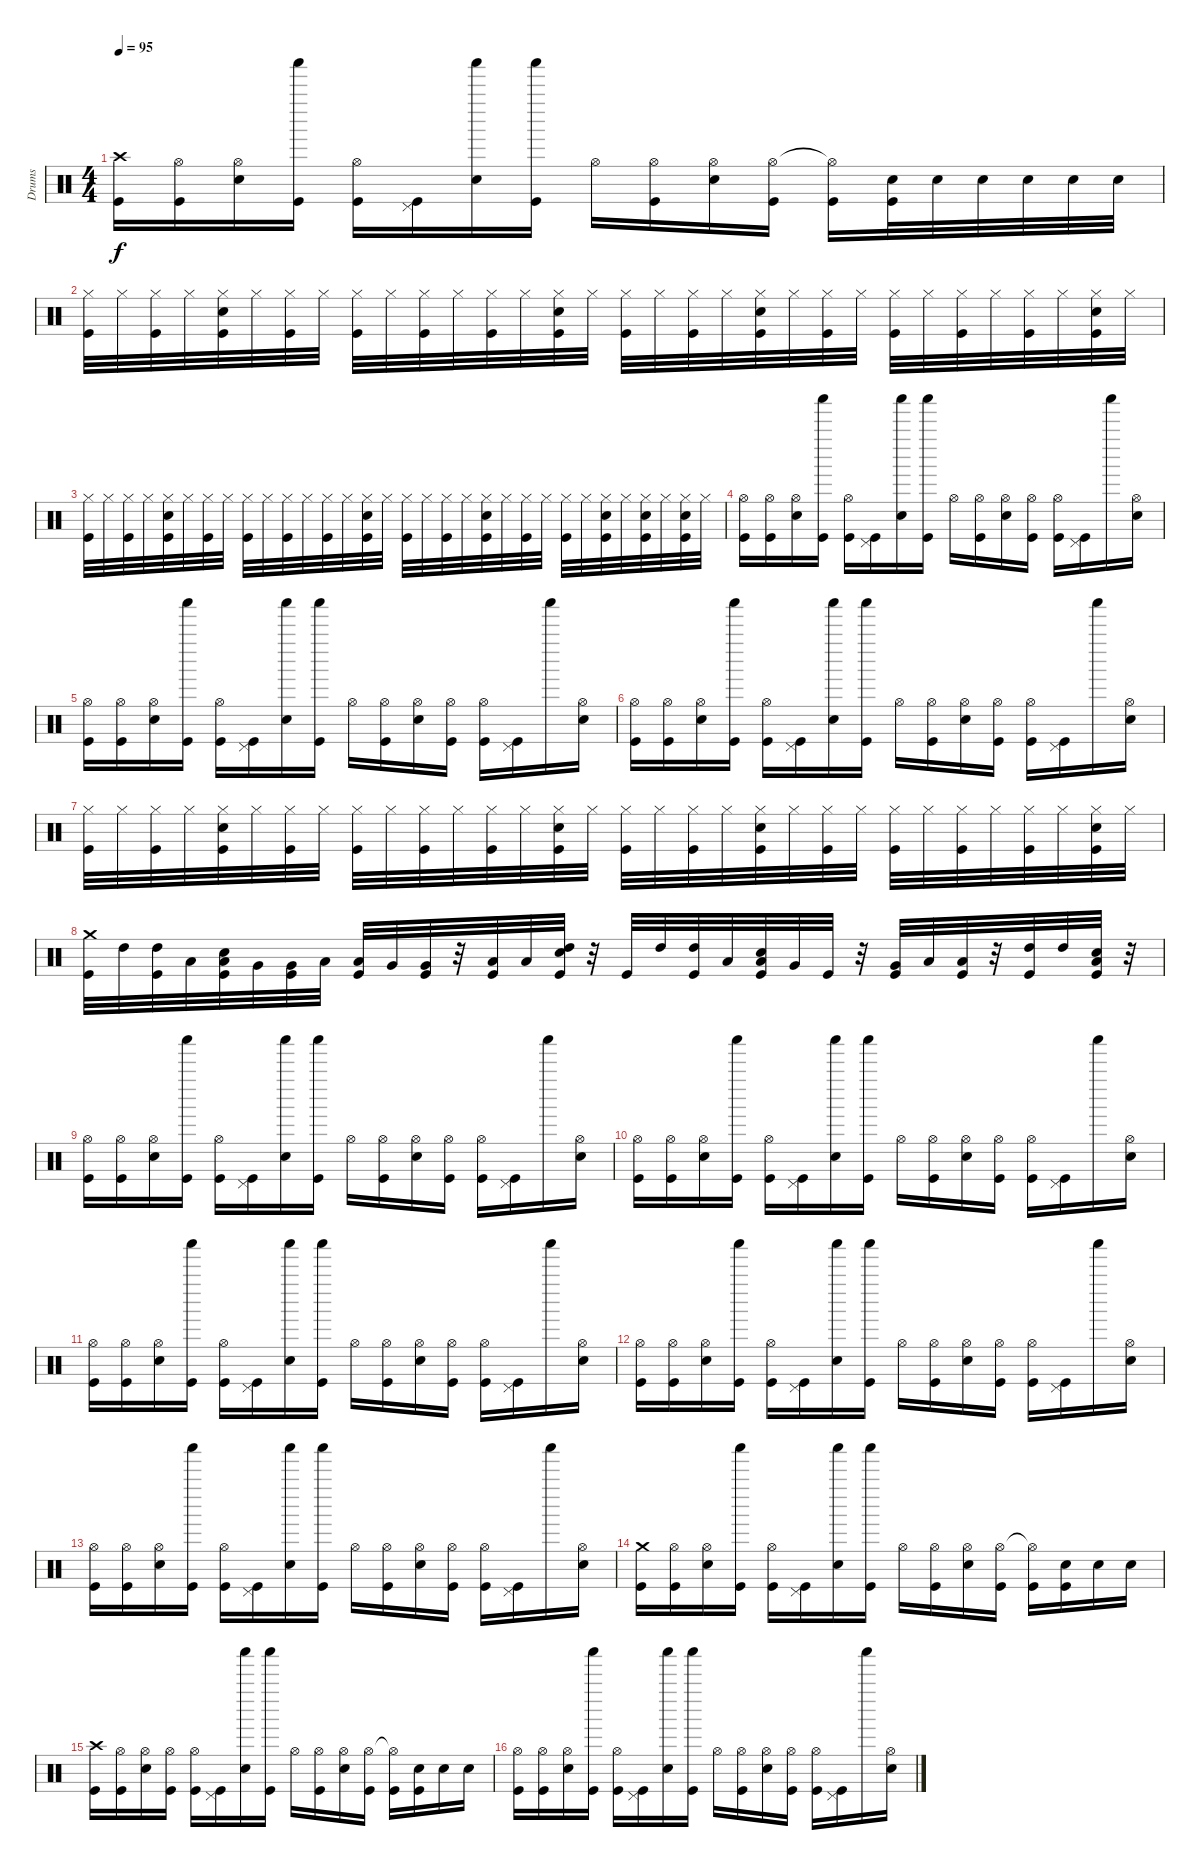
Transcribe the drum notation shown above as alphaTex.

\track ("Drums" "Drums") {instrument percussion}
\staff {score}
\articulation defaults
\ts (4 4)
\tempo 95
\clef neutral
\ks c
("Crash high (hit)" "Kick (hit)").16{dy f} ("Hi-Hat (open)" "Kick (hit)").16 ("Hi-Hat (open)" "Electric Snare (hit)").16 ("Shaker (hit)" "Kick (hit)").16 ("Hi-Hat (open)" "Kick (hit)").16 ("Pedal Hi-Hat (hit)" "Kick (hit)").16 ("Shaker (hit)" "Electric Snare (hit)").16 ("Shaker (hit)" "Kick (hit)").16 "Hi-Hat (open)".16 ("Hi-Hat (open)" "Kick (hit)").16 ("Hi-Hat (open)" "Electric Snare (hit)").16 ("Hi-Hat (open)" "Kick (hit)").16 ("Hi-Hat (open)"{t} "Kick (hit)").16 ("Electric Snare (hit)" "Kick (hit)").32 "Electric Snare (hit)".32 "Electric Snare (hit)".32 "Electric Snare (hit)".32 "Electric Snare (hit)".32 "Electric Snare (hit)".32 |
("Hi-Hat (closed)" "Kick (hit)").32 "Hi-Hat (closed)".32 ("Hi-Hat (closed)" "Kick (hit)").32 "Hi-Hat (closed)".32 ("Hi-Hat (closed)" "Electric Snare (hit)" "Kick (hit)").32 "Hi-Hat (closed)".32 ("Hi-Hat (closed)" "Kick (hit)").32 "Hi-Hat (closed)".32 ("Hi-Hat (closed)" "Kick (hit)").32 "Hi-Hat (closed)".32 ("Hi-Hat (closed)" "Kick (hit)").32 "Hi-Hat (closed)".32 ("Hi-Hat (closed)" "Kick (hit)").32 "Hi-Hat (closed)".32 ("Hi-Hat (closed)" "Electric Snare (hit)" "Kick (hit)").32 "Hi-Hat (closed)".32 ("Hi-Hat (closed)" "Kick (hit)").32 "Hi-Hat (closed)".32 ("Hi-Hat (closed)" "Kick (hit)").32 "Hi-Hat (closed)".32 ("Hi-Hat (closed)" "Electric Snare (hit)" "Kick (hit)").32 "Hi-Hat (closed)".32 ("Hi-Hat (closed)" "Kick (hit)").32 "Hi-Hat (closed)".32 ("Hi-Hat (closed)" "Kick (hit)").32 "Hi-Hat (closed)".32 ("Hi-Hat (closed)" "Kick (hit)").32 "Hi-Hat (closed)".32 ("Hi-Hat (closed)" "Kick (hit)").32 "Hi-Hat (closed)".32 ("Hi-Hat (closed)" "Electric Snare (hit)" "Kick (hit)").32 "Hi-Hat (closed)".32 |
("Hi-Hat (closed)" "Kick (hit)").32 "Hi-Hat (closed)".32 ("Hi-Hat (closed)" "Kick (hit)").32 "Hi-Hat (closed)".32 ("Hi-Hat (closed)" "Electric Snare (hit)" "Kick (hit)").32 "Hi-Hat (closed)".32 ("Hi-Hat (closed)" "Kick (hit)").32 "Hi-Hat (closed)".32 ("Hi-Hat (closed)" "Kick (hit)").32 "Hi-Hat (closed)".32 ("Hi-Hat (closed)" "Kick (hit)").32 "Hi-Hat (closed)".32 ("Hi-Hat (closed)" "Kick (hit)").32 "Hi-Hat (closed)".32 ("Hi-Hat (closed)" "Electric Snare (hit)" "Kick (hit)").32 "Hi-Hat (closed)".32 ("Hi-Hat (closed)" "Kick (hit)").32 "Hi-Hat (closed)".32 ("Hi-Hat (closed)" "Kick (hit)").32 "Hi-Hat (closed)".32 ("Hi-Hat (closed)" "Electric Snare (hit)" "Kick (hit)").32 "Hi-Hat (closed)".32 ("Hi-Hat (closed)" "Kick (hit)").32 "Hi-Hat (closed)".32 ("Hi-Hat (closed)" "Kick (hit)").32 "Hi-Hat (closed)".32 ("Hi-Hat (closed)" "Electric Snare (hit)" "Kick (hit)").32 "Hi-Hat (closed)".32 ("Hi-Hat (closed)" "Electric Snare (hit)" "Kick (hit)").32 "Hi-Hat (closed)".32 ("Hi-Hat (closed)" "Electric Snare (hit)" "Kick (hit)").32 "Hi-Hat (closed)".32 |
("Hi-Hat (open)" "Kick (hit)").16 ("Hi-Hat (open)" "Kick (hit)").16 ("Hi-Hat (open)" "Electric Snare (hit)").16 ("Shaker (hit)" "Kick (hit)").16 ("Hi-Hat (open)" "Kick (hit)").16 ("Pedal Hi-Hat (hit)" "Kick (hit)").16 ("Shaker (hit)" "Electric Snare (hit)").16 ("Shaker (hit)" "Kick (hit)").16 "Hi-Hat (open)".16 ("Hi-Hat (open)" "Kick (hit)").16 ("Hi-Hat (open)" "Electric Snare (hit)").16 ("Hi-Hat (open)" "Kick (hit)").16 ("Hi-Hat (open)" "Kick (hit)").16 ("Pedal Hi-Hat (hit)" "Kick (hit)").16 "Shaker (hit)".16 ("Hi-Hat (open)" "Electric Snare (hit)").16 |
("Hi-Hat (open)" "Kick (hit)").16 ("Hi-Hat (open)" "Kick (hit)").16 ("Hi-Hat (open)" "Electric Snare (hit)").16 ("Shaker (hit)" "Kick (hit)").16 ("Hi-Hat (open)" "Kick (hit)").16 ("Pedal Hi-Hat (hit)" "Kick (hit)").16 ("Shaker (hit)" "Electric Snare (hit)").16 ("Shaker (hit)" "Kick (hit)").16 "Hi-Hat (open)".16 ("Hi-Hat (open)" "Kick (hit)").16 ("Hi-Hat (open)" "Electric Snare (hit)").16 ("Hi-Hat (open)" "Kick (hit)").16 ("Hi-Hat (open)" "Kick (hit)").16 ("Pedal Hi-Hat (hit)" "Kick (hit)").16 "Shaker (hit)".16 ("Hi-Hat (open)" "Electric Snare (hit)").16 |
("Hi-Hat (open)" "Kick (hit)").16 ("Hi-Hat (open)" "Kick (hit)").16 ("Hi-Hat (open)" "Electric Snare (hit)").16 ("Shaker (hit)" "Kick (hit)").16 ("Hi-Hat (open)" "Kick (hit)").16 ("Pedal Hi-Hat (hit)" "Kick (hit)").16 ("Shaker (hit)" "Electric Snare (hit)").16 ("Shaker (hit)" "Kick (hit)").16 "Hi-Hat (open)".16 ("Hi-Hat (open)" "Kick (hit)").16 ("Hi-Hat (open)" "Electric Snare (hit)").16 ("Hi-Hat (open)" "Kick (hit)").16 ("Hi-Hat (open)" "Kick (hit)").16 ("Pedal Hi-Hat (hit)" "Kick (hit)").16 "Shaker (hit)".16 ("Hi-Hat (open)" "Electric Snare (hit)").16 |
("Hi-Hat (closed)" "Kick (hit)").32 "Hi-Hat (closed)".32 ("Hi-Hat (closed)" "Kick (hit)").32 "Hi-Hat (closed)".32 ("Hi-Hat (closed)" "Electric Snare (hit)" "Kick (hit)").32 "Hi-Hat (closed)".32 ("Hi-Hat (closed)" "Kick (hit)").32 "Hi-Hat (closed)".32 ("Hi-Hat (closed)" "Kick (hit)").32 "Hi-Hat (closed)".32 ("Hi-Hat (closed)" "Kick (hit)").32 "Hi-Hat (closed)".32 ("Hi-Hat (closed)" "Kick (hit)").32 "Hi-Hat (closed)".32 ("Hi-Hat (closed)" "Electric Snare (hit)" "Kick (hit)").32 "Hi-Hat (closed)".32 ("Hi-Hat (closed)" "Kick (hit)").32 "Hi-Hat (closed)".32 ("Hi-Hat (closed)" "Kick (hit)").32 "Hi-Hat (closed)".32 ("Hi-Hat (closed)" "Electric Snare (hit)" "Kick (hit)").32 "Hi-Hat (closed)".32 ("Hi-Hat (closed)" "Kick (hit)").32 "Hi-Hat (closed)".32 ("Hi-Hat (closed)" "Kick (hit)").32 "Hi-Hat (closed)".32 ("Hi-Hat (closed)" "Kick (hit)").32 "Hi-Hat (closed)".32 ("Hi-Hat (closed)" "Kick (hit)").32 "Hi-Hat (closed)".32 ("Hi-Hat (closed)" "Electric Snare (hit)" "Kick (hit)").32 "Hi-Hat (closed)".32 |
("Crash medium (hit)" "Kick (hit)").32 "High Tom (hit)".32 ("High Tom (hit)" "Kick (hit)").32 "Low Tom (hit)".32 ("Low Tom (hit)" "Electric Snare (hit)" "Kick (hit)").32 "Very Low Tom (hit)".32 ("Very Low Tom (hit)" "Kick (hit)").32 "Low Floor Tom (hit)".32 ("Low Floor Tom (hit)" "Kick (hit)").32 "Very Low Tom (hit)".32 ("Very Low Tom (hit)" "Kick (hit)").32 r.32 ("Low Tom (hit)" "Kick (hit)").32 "Low Tom (hit)".32 ("High Tom (hit)" "Electric Snare (hit)" "Kick (hit)").32 r.32 "Kick (hit)".32 "High Tom (hit)".32 ("High Tom (hit)" "Kick (hit)").32 "Low Tom (hit)".32 ("Low Tom (hit)" "Electric Snare (hit)" "Kick (hit)").32 "Very Low Tom (hit)".32 "Kick (hit)".32 r.32 ("Very Low Tom (hit)" "Kick (hit)").32 "Low Tom (hit)".32 ("Low Tom (hit)" "Kick (hit)").32 r.32 ("High Tom (hit)" "Kick (hit)").32 "High Tom (hit)".32 ("Low Tom (hit)" "Electric Snare (hit)" "Kick (hit)").32 r.32 |
("Hi-Hat (open)" "Kick (hit)").16 ("Hi-Hat (open)" "Kick (hit)").16 ("Hi-Hat (open)" "Electric Snare (hit)").16 ("Shaker (hit)" "Kick (hit)").16 ("Hi-Hat (open)" "Kick (hit)").16 ("Pedal Hi-Hat (hit)" "Kick (hit)").16 ("Shaker (hit)" "Electric Snare (hit)").16 ("Shaker (hit)" "Kick (hit)").16 "Hi-Hat (open)".16 ("Hi-Hat (open)" "Kick (hit)").16 ("Hi-Hat (open)" "Electric Snare (hit)").16 ("Hi-Hat (open)" "Kick (hit)").16 ("Hi-Hat (open)" "Kick (hit)").16 ("Pedal Hi-Hat (hit)" "Kick (hit)").16 "Shaker (hit)".16 ("Hi-Hat (open)" "Electric Snare (hit)").16 |
("Hi-Hat (open)" "Kick (hit)").16 ("Hi-Hat (open)" "Kick (hit)").16 ("Hi-Hat (open)" "Electric Snare (hit)").16 ("Shaker (hit)" "Kick (hit)").16 ("Hi-Hat (open)" "Kick (hit)").16 ("Pedal Hi-Hat (hit)" "Kick (hit)").16 ("Shaker (hit)" "Electric Snare (hit)").16 ("Shaker (hit)" "Kick (hit)").16 "Hi-Hat (open)".16 ("Hi-Hat (open)" "Kick (hit)").16 ("Hi-Hat (open)" "Electric Snare (hit)").16 ("Hi-Hat (open)" "Kick (hit)").16 ("Hi-Hat (open)" "Kick (hit)").16 ("Pedal Hi-Hat (hit)" "Kick (hit)").16 "Shaker (hit)".16 ("Hi-Hat (open)" "Electric Snare (hit)").16 |
("Hi-Hat (open)" "Kick (hit)").16 ("Hi-Hat (open)" "Kick (hit)").16 ("Hi-Hat (open)" "Electric Snare (hit)").16 ("Shaker (hit)" "Kick (hit)").16 ("Hi-Hat (open)" "Kick (hit)").16 ("Pedal Hi-Hat (hit)" "Kick (hit)").16 ("Shaker (hit)" "Electric Snare (hit)").16 ("Shaker (hit)" "Kick (hit)").16 "Hi-Hat (open)".16 ("Hi-Hat (open)" "Kick (hit)").16 ("Hi-Hat (open)" "Electric Snare (hit)").16 ("Hi-Hat (open)" "Kick (hit)").16 ("Hi-Hat (open)" "Kick (hit)").16 ("Pedal Hi-Hat (hit)" "Kick (hit)").16 "Shaker (hit)".16 ("Hi-Hat (open)" "Electric Snare (hit)").16 |
("Hi-Hat (open)" "Kick (hit)").16 ("Hi-Hat (open)" "Kick (hit)").16 ("Hi-Hat (open)" "Electric Snare (hit)").16 ("Shaker (hit)" "Kick (hit)").16 ("Hi-Hat (open)" "Kick (hit)").16 ("Pedal Hi-Hat (hit)" "Kick (hit)").16 ("Shaker (hit)" "Electric Snare (hit)").16 ("Shaker (hit)" "Kick (hit)").16 "Hi-Hat (open)".16 ("Hi-Hat (open)" "Kick (hit)").16 ("Hi-Hat (open)" "Electric Snare (hit)").16 ("Hi-Hat (open)" "Kick (hit)").16 ("Hi-Hat (open)" "Kick (hit)").16 ("Pedal Hi-Hat (hit)" "Kick (hit)").16 "Shaker (hit)".16 ("Hi-Hat (open)" "Electric Snare (hit)").16 |
("Hi-Hat (open)" "Kick (hit)").16 ("Hi-Hat (open)" "Kick (hit)").16 ("Hi-Hat (open)" "Electric Snare (hit)").16 ("Shaker (hit)" "Kick (hit)").16 ("Hi-Hat (open)" "Kick (hit)").16 ("Pedal Hi-Hat (hit)" "Kick (hit)").16 ("Shaker (hit)" "Electric Snare (hit)").16 ("Shaker (hit)" "Kick (hit)").16 "Hi-Hat (open)".16 ("Hi-Hat (open)" "Kick (hit)").16 ("Hi-Hat (open)" "Electric Snare (hit)").16 ("Hi-Hat (open)" "Kick (hit)").16 ("Hi-Hat (open)" "Kick (hit)").16 ("Pedal Hi-Hat (hit)" "Kick (hit)").16 "Shaker (hit)".16 ("Hi-Hat (open)" "Electric Snare (hit)").16 |
("Crash medium (hit)" "Kick (hit)").16 ("Hi-Hat (open)" "Kick (hit)").16 ("Hi-Hat (open)" "Electric Snare (hit)").16 ("Shaker (hit)" "Kick (hit)").16 ("Hi-Hat (open)" "Kick (hit)").16 ("Pedal Hi-Hat (hit)" "Kick (hit)").16 ("Shaker (hit)" "Electric Snare (hit)").16 ("Shaker (hit)" "Kick (hit)").16 "Hi-Hat (open)".16 ("Hi-Hat (open)" "Kick (hit)").16 ("Hi-Hat (open)" "Electric Snare (hit)").16 ("Hi-Hat (open)" "Kick (hit)").16 ("Hi-Hat (open)"{t} "Kick (hit)").16 ("Electric Snare (hit)" "Kick (hit)").16 "Electric Snare (hit)".16 "Electric Snare (hit)".16 |
("Crash high (hit)" "Kick (hit)").16 ("Hi-Hat (open)" "Kick (hit)").16 ("Hi-Hat (open)" "Electric Snare (hit)").16 ("Hi-Hat (open)" "Kick (hit)").16 ("Hi-Hat (open)" "Kick (hit)").16 ("Pedal Hi-Hat (hit)" "Kick (hit)").16 ("Shaker (hit)" "Electric Snare (hit)").16 ("Shaker (hit)" "Kick (hit)").16 "Hi-Hat (open)".16 ("Hi-Hat (open)" "Kick (hit)").16 ("Hi-Hat (open)" "Electric Snare (hit)").16 ("Hi-Hat (open)" "Kick (hit)").16 ("Hi-Hat (open)"{t} "Kick (hit)").16 ("Electric Snare (hit)" "Kick (hit)").16 "Electric Snare (hit)".16 "Electric Snare (hit)".16 |
("Hi-Hat (open)" "Kick (hit)").16 ("Hi-Hat (open)" "Kick (hit)").16 ("Hi-Hat (open)" "Electric Snare (hit)").16 ("Shaker (hit)" "Kick (hit)").16 ("Hi-Hat (open)" "Kick (hit)").16 ("Pedal Hi-Hat (hit)" "Kick (hit)").16 ("Shaker (hit)" "Electric Snare (hit)").16 ("Shaker (hit)" "Kick (hit)").16 "Hi-Hat (open)".16 ("Hi-Hat (open)" "Kick (hit)").16 ("Hi-Hat (open)" "Electric Snare (hit)").16 ("Hi-Hat (open)" "Kick (hit)").16 ("Hi-Hat (open)" "Kick (hit)").16 ("Pedal Hi-Hat (hit)" "Kick (hit)").16 "Shaker (hit)".16 ("Hi-Hat (open)" "Electric Snare (hit)").16
